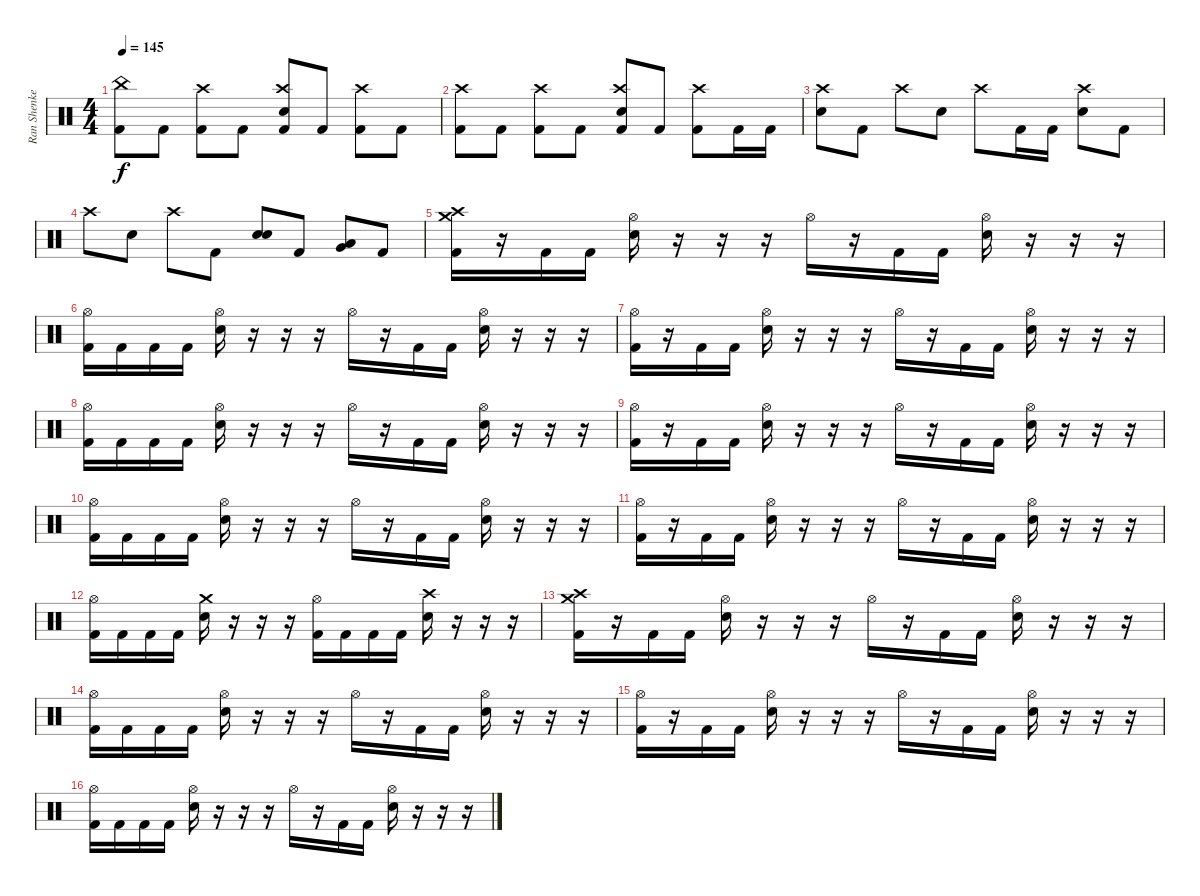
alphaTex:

\track ("Ran Shenkerman" "Ran Shenke") {instrument percussion}
\staff {score}
\articulation defaults
\ts (4 4)
\tempo 145
\clef neutral
\ks c
("China (hit)" "Kick (hit) 2").8{dy f} "Kick (hit) 2".8 ("Crash high (hit)" "Kick (hit) 2").8 "Kick (hit) 2".8 ("Crash high (hit)" "Snare (hit) 2" "Kick (hit) 2").8 "Kick (hit) 2".8 ("Crash high (hit)" "Kick (hit) 2").8 "Kick (hit) 2".8 |
("Crash high (hit)" "Kick (hit) 2").8 "Kick (hit) 2".8 ("Crash high (hit)" "Kick (hit) 2").8 "Kick (hit) 2".8 ("Crash high (hit)" "Snare (hit) 2" "Kick (hit) 2").8 "Kick (hit) 2".8 ("Crash high (hit)" "Kick (hit) 2").8 "Kick (hit) 2".16 "Kick (hit) 2".16 |
("Crash high (hit)" "Snare (hit) 2").8 "Kick (hit) 2".8 "Crash high (hit)".8 "Snare (hit) 2".8 "Crash high (hit)".8 "Kick (hit) 2".16 "Kick (hit) 2".16 ("Crash high (hit)" "Snare (hit) 2").8 "Kick (hit) 2".8 |
"Crash high (hit)".8 "Snare (hit) 2".8 "Crash high (hit)".8 "Kick (hit) 2".8 ("Snare (hit) 2" "Snare (hit) 2").8 "Kick (hit) 2".8 ("Very Low Tom (hit)" "Low Floor Tom (hit)").8 "Kick (hit) 2".8 |
("Crash high (hit)" "Crash medium (hit)" "Kick (hit) 2").16 r.16 "Kick (hit) 2".16 "Kick (hit) 2".16 ("Hi-Hat (open)" "Snare (hit) 2").16 r.16 r.16 r.16 "Hi-Hat (open)".16 r.16 "Kick (hit) 2".16 "Kick (hit) 2".16 ("Hi-Hat (open)" "Snare (hit) 2").16 r.16 r.16 r.16 |
("Hi-Hat (open)" "Kick (hit) 2").16 "Kick (hit) 2".16 "Kick (hit) 2".16 "Kick (hit) 2".16 ("Hi-Hat (open)" "Snare (hit) 2").16 r.16 r.16 r.16 "Hi-Hat (open)".16 r.16 "Kick (hit) 2".16 "Kick (hit) 2".16 ("Hi-Hat (open)" "Snare (hit) 2").16 r.16 r.16 r.16 |
("Hi-Hat (open)" "Kick (hit) 2").16 r.16 "Kick (hit) 2".16 "Kick (hit) 2".16 ("Hi-Hat (open)" "Snare (hit) 2").16 r.16 r.16 r.16 "Hi-Hat (open)".16 r.16 "Kick (hit) 2".16 "Kick (hit) 2".16 ("Hi-Hat (open)" "Snare (hit) 2").16 r.16 r.16 r.16 |
("Hi-Hat (open)" "Kick (hit) 2").16 "Kick (hit) 2".16 "Kick (hit) 2".16 "Kick (hit) 2".16 ("Hi-Hat (open)" "Snare (hit) 2").16 r.16 r.16 r.16 "Hi-Hat (open)".16 r.16 "Kick (hit) 2".16 "Kick (hit) 2".16 ("Hi-Hat (open)" "Snare (hit) 2").16 r.16 r.16 r.16 |
("Hi-Hat (open)" "Kick (hit) 2").16 r.16 "Kick (hit) 2".16 "Kick (hit) 2".16 ("Hi-Hat (open)" "Snare (hit) 2").16 r.16 r.16 r.16 "Hi-Hat (open)".16 r.16 "Kick (hit) 2".16 "Kick (hit) 2".16 ("Hi-Hat (open)" "Snare (hit) 2").16 r.16 r.16 r.16 |
("Hi-Hat (open)" "Kick (hit) 2").16 "Kick (hit) 2".16 "Kick (hit) 2".16 "Kick (hit) 2".16 ("Hi-Hat (open)" "Snare (hit) 2").16 r.16 r.16 r.16 "Hi-Hat (open)".16 r.16 "Kick (hit) 2".16 "Kick (hit) 2".16 ("Hi-Hat (open)" "Snare (hit) 2").16 r.16 r.16 r.16 |
("Hi-Hat (open)" "Kick (hit) 2").16 r.16 "Kick (hit) 2".16 "Kick (hit) 2".16 ("Hi-Hat (open)" "Snare (hit) 2").16 r.16 r.16 r.16 "Hi-Hat (open)".16 r.16 "Kick (hit) 2".16 "Kick (hit) 2".16 ("Hi-Hat (open)" "Snare (hit) 2").16 r.16 r.16 r.16 |
("Hi-Hat (open)" "Kick (hit) 2").16 "Kick (hit) 2".16 "Kick (hit) 2".16 "Kick (hit) 2".16 ("Crash medium (hit)" "Snare (hit) 2").16 r.16 r.16 r.16 ("Hi-Hat (open)" "Kick (hit) 2").16 "Kick (hit) 2".16 "Kick (hit) 2".16 "Kick (hit) 2".16 ("Crash high (hit)" "Snare (hit) 2").16 r.16 r.16 r.16 |
("Crash high (hit)" "Crash medium (hit)" "Kick (hit) 2").16 r.16 "Kick (hit) 2".16 "Kick (hit) 2".16 ("Hi-Hat (open)" "Snare (hit) 2").16 r.16 r.16 r.16 "Hi-Hat (open)".16 r.16 "Kick (hit) 2".16 "Kick (hit) 2".16 ("Hi-Hat (open)" "Snare (hit) 2").16 r.16 r.16 r.16 |
("Hi-Hat (open)" "Kick (hit) 2").16 "Kick (hit) 2".16 "Kick (hit) 2".16 "Kick (hit) 2".16 ("Hi-Hat (open)" "Snare (hit) 2").16 r.16 r.16 r.16 "Hi-Hat (open)".16 r.16 "Kick (hit) 2".16 "Kick (hit) 2".16 ("Hi-Hat (open)" "Snare (hit) 2").16 r.16 r.16 r.16 |
("Hi-Hat (open)" "Kick (hit) 2").16 r.16 "Kick (hit) 2".16 "Kick (hit) 2".16 ("Hi-Hat (open)" "Snare (hit) 2").16 r.16 r.16 r.16 "Hi-Hat (open)".16 r.16 "Kick (hit) 2".16 "Kick (hit) 2".16 ("Hi-Hat (open)" "Snare (hit) 2").16 r.16 r.16 r.16 |
("Hi-Hat (open)" "Kick (hit) 2").16 "Kick (hit) 2".16 "Kick (hit) 2".16 "Kick (hit) 2".16 ("Hi-Hat (open)" "Snare (hit) 2").16 r.16 r.16 r.16 "Hi-Hat (open)".16 r.16 "Kick (hit) 2".16 "Kick (hit) 2".16 ("Hi-Hat (open)" "Snare (hit) 2").16 r.16 r.16 r.16
